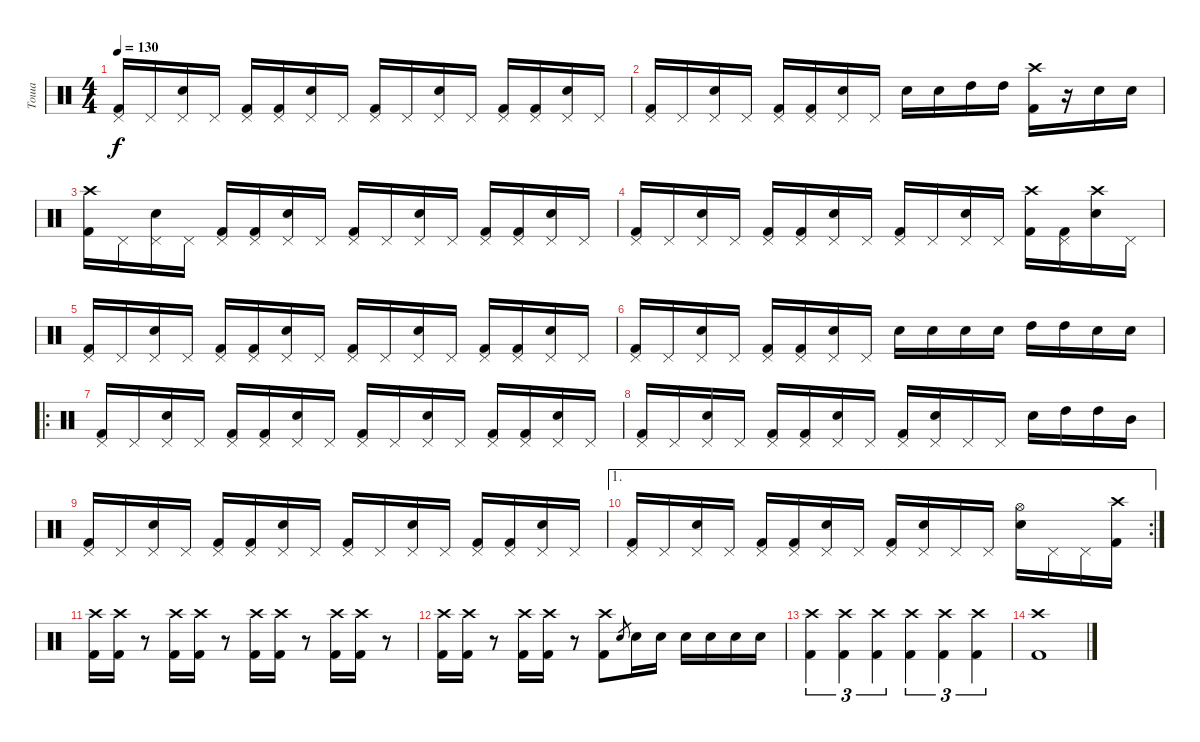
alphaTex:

\track ("Тоша" "Тоша") {solo instrument percussion}
\staff {score}
\articulation defaults
\ts (4 4)
\tempo 130
\clef neutral
\ks c
("Kick (hit) 2" "Pedal Hi-Hat (hit)").16{dy f} "Pedal Hi-Hat (hit)".16 ("Electric Snare (hit)" "Pedal Hi-Hat (hit)").16 "Pedal Hi-Hat (hit)".16 ("Kick (hit) 2" "Pedal Hi-Hat (hit)").16 ("Kick (hit) 2" "Pedal Hi-Hat (hit)").16 ("Electric Snare (hit)" "Pedal Hi-Hat (hit)").16 "Pedal Hi-Hat (hit)".16 ("Kick (hit) 2" "Pedal Hi-Hat (hit)").16 "Pedal Hi-Hat (hit)".16 ("Electric Snare (hit)" "Pedal Hi-Hat (hit)").16 "Pedal Hi-Hat (hit)".16 ("Kick (hit) 2" "Pedal Hi-Hat (hit)").16 ("Kick (hit) 2" "Pedal Hi-Hat (hit)").16 ("Electric Snare (hit)" "Pedal Hi-Hat (hit)").16 "Pedal Hi-Hat (hit)".16 |
("Kick (hit) 2" "Pedal Hi-Hat (hit)").16 "Pedal Hi-Hat (hit)".16 ("Electric Snare (hit)" "Pedal Hi-Hat (hit)").16 "Pedal Hi-Hat (hit)".16 ("Kick (hit) 2" "Pedal Hi-Hat (hit)").16 ("Kick (hit) 2" "Pedal Hi-Hat (hit)").16 ("Electric Snare (hit)" "Pedal Hi-Hat (hit)").16 "Pedal Hi-Hat (hit)".16 "Electric Snare (hit)".16 "Electric Snare (hit)".16 "High Tom (hit)".16 "High Tom (hit)".16 ("Crash high (hit)" "Kick (hit) 2").16 r.16 "Electric Snare (hit)".16 "Electric Snare (hit)".16 |
("Kick (hit) 2" "Crash high (hit)").16 "Pedal Hi-Hat (hit)".16 ("Electric Snare (hit)" "Pedal Hi-Hat (hit)").16 "Pedal Hi-Hat (hit)".16 ("Kick (hit) 2" "Pedal Hi-Hat (hit)").16 ("Kick (hit) 2" "Pedal Hi-Hat (hit)").16 ("Electric Snare (hit)" "Pedal Hi-Hat (hit)").16 "Pedal Hi-Hat (hit)".16 ("Kick (hit) 2" "Pedal Hi-Hat (hit)").16 "Pedal Hi-Hat (hit)".16 ("Electric Snare (hit)" "Pedal Hi-Hat (hit)").16 "Pedal Hi-Hat (hit)".16 ("Kick (hit) 2" "Pedal Hi-Hat (hit)").16 ("Kick (hit) 2" "Pedal Hi-Hat (hit)").16 ("Electric Snare (hit)" "Pedal Hi-Hat (hit)").16 "Pedal Hi-Hat (hit)".16 |
("Kick (hit) 2" "Pedal Hi-Hat (hit)").16 "Pedal Hi-Hat (hit)".16 ("Electric Snare (hit)" "Pedal Hi-Hat (hit)").16 "Pedal Hi-Hat (hit)".16 ("Kick (hit) 2" "Pedal Hi-Hat (hit)").16 ("Kick (hit) 2" "Pedal Hi-Hat (hit)").16 ("Electric Snare (hit)" "Pedal Hi-Hat (hit)").16 "Pedal Hi-Hat (hit)".16 ("Kick (hit) 2" "Pedal Hi-Hat (hit)").16 "Pedal Hi-Hat (hit)".16 ("Electric Snare (hit)" "Pedal Hi-Hat (hit)").16 "Pedal Hi-Hat (hit)".16 ("Kick (hit) 2" "Crash high (hit)").16 ("Kick (hit) 2" "Pedal Hi-Hat (hit)").16 ("Electric Snare (hit)" "Crash high (hit)").16 "Pedal Hi-Hat (hit)".16 |
("Kick (hit) 2" "Pedal Hi-Hat (hit)").16 "Pedal Hi-Hat (hit)".16 ("Electric Snare (hit)" "Pedal Hi-Hat (hit)").16 "Pedal Hi-Hat (hit)".16 ("Kick (hit) 2" "Pedal Hi-Hat (hit)").16 ("Kick (hit) 2" "Pedal Hi-Hat (hit)").16 ("Electric Snare (hit)" "Pedal Hi-Hat (hit)").16 "Pedal Hi-Hat (hit)".16 ("Kick (hit) 2" "Pedal Hi-Hat (hit)").16 "Pedal Hi-Hat (hit)".16 ("Electric Snare (hit)" "Pedal Hi-Hat (hit)").16 "Pedal Hi-Hat (hit)".16 ("Kick (hit) 2" "Pedal Hi-Hat (hit)").16 ("Kick (hit) 2" "Pedal Hi-Hat (hit)").16 ("Electric Snare (hit)" "Pedal Hi-Hat (hit)").16 "Pedal Hi-Hat (hit)".16 |
("Kick (hit) 2" "Pedal Hi-Hat (hit)").16 "Pedal Hi-Hat (hit)".16 ("Electric Snare (hit)" "Pedal Hi-Hat (hit)").16 "Pedal Hi-Hat (hit)".16 ("Kick (hit) 2" "Pedal Hi-Hat (hit)").16 ("Kick (hit) 2" "Pedal Hi-Hat (hit)").16 ("Electric Snare (hit)" "Pedal Hi-Hat (hit)").16 "Pedal Hi-Hat (hit)".16 "Electric Snare (hit)".16 "Electric Snare (hit)".16 "Electric Snare (hit)".16 "Electric Snare (hit)".16 "High Tom (hit)".16 "High Tom (hit)".16 "Electric Snare (hit)".16 "Electric Snare (hit)".16 |
\ro
("Kick (hit) 2" "Pedal Hi-Hat (hit)").16 "Pedal Hi-Hat (hit)".16 ("Electric Snare (hit)" "Pedal Hi-Hat (hit)").16 "Pedal Hi-Hat (hit)".16 ("Kick (hit) 2" "Pedal Hi-Hat (hit)").16 ("Kick (hit) 2" "Pedal Hi-Hat (hit)").16 ("Electric Snare (hit)" "Pedal Hi-Hat (hit)").16 "Pedal Hi-Hat (hit)".16 ("Kick (hit) 2" "Pedal Hi-Hat (hit)").16 "Pedal Hi-Hat (hit)".16 ("Electric Snare (hit)" "Pedal Hi-Hat (hit)").16 "Pedal Hi-Hat (hit)".16 ("Kick (hit) 2" "Pedal Hi-Hat (hit)").16 ("Kick (hit) 2" "Pedal Hi-Hat (hit)").16 ("Electric Snare (hit)" "Pedal Hi-Hat (hit)").16 "Pedal Hi-Hat (hit)".16 |
("Kick (hit) 2" "Pedal Hi-Hat (hit)").16 "Pedal Hi-Hat (hit)".16 ("Electric Snare (hit)" "Pedal Hi-Hat (hit)").16 "Pedal Hi-Hat (hit)".16 ("Kick (hit) 2" "Pedal Hi-Hat (hit)").16 ("Kick (hit) 2" "Pedal Hi-Hat (hit)").16 ("Electric Snare (hit)" "Pedal Hi-Hat (hit)").16 "Pedal Hi-Hat (hit)".16 ("Kick (hit) 2" "Pedal Hi-Hat (hit)").16 ("Electric Snare (hit)" "Pedal Hi-Hat (hit)").16 "Pedal Hi-Hat (hit)".16 "Pedal Hi-Hat (hit)".16 "Electric Snare (hit)".16 "High Tom (hit)".16 "High Tom (hit)".16 "Mid Tom (hit)".16 |
("Kick (hit) 2" "Pedal Hi-Hat (hit)").16 "Pedal Hi-Hat (hit)".16 ("Electric Snare (hit)" "Pedal Hi-Hat (hit)").16 "Pedal Hi-Hat (hit)".16 ("Kick (hit) 2" "Pedal Hi-Hat (hit)").16 ("Kick (hit) 2" "Pedal Hi-Hat (hit)").16 ("Electric Snare (hit)" "Pedal Hi-Hat (hit)").16 "Pedal Hi-Hat (hit)".16 ("Kick (hit) 2" "Pedal Hi-Hat (hit)").16 "Pedal Hi-Hat (hit)".16 ("Electric Snare (hit)" "Pedal Hi-Hat (hit)").16 "Pedal Hi-Hat (hit)".16 ("Kick (hit) 2" "Pedal Hi-Hat (hit)").16 ("Kick (hit) 2" "Pedal Hi-Hat (hit)").16 ("Electric Snare (hit)" "Pedal Hi-Hat (hit)").16 "Pedal Hi-Hat (hit)".16 |
\ae 1
\rc 2
("Kick (hit) 2" "Pedal Hi-Hat (hit)").16 "Pedal Hi-Hat (hit)".16 ("Electric Snare (hit)" "Pedal Hi-Hat (hit)").16 "Pedal Hi-Hat (hit)".16 ("Kick (hit) 2" "Pedal Hi-Hat (hit)").16 ("Kick (hit) 2" "Pedal Hi-Hat (hit)").16 ("Electric Snare (hit)" "Pedal Hi-Hat (hit)").16 "Pedal Hi-Hat (hit)".16 ("Kick (hit) 2" "Pedal Hi-Hat (hit)").16 ("Electric Snare (hit)" "Pedal Hi-Hat (hit)").16 "Pedal Hi-Hat (hit)".16 "Pedal Hi-Hat (hit)".16 ("Electric Snare (hit)" "Hi-Hat (open)").16 "Pedal Hi-Hat (hit)".16 "Pedal Hi-Hat (hit)".16 ("Kick (hit) 2" "Crash high (hit)").16 |
("Kick (hit) 2" "Crash high (hit)").16 ("Kick (hit) 2" "Crash high (hit)").16 r.8 ("Kick (hit) 2" "Crash high (hit)").16 ("Kick (hit) 2" "Crash high (hit)").16 r.8 ("Kick (hit) 2" "Crash high (hit)").16 ("Kick (hit) 2" "Crash high (hit)").16 r.8 ("Kick (hit) 2" "Crash high (hit)").16 ("Kick (hit) 2" "Crash high (hit)").16 r.8 |
("Kick (hit) 2" "Crash high (hit)").16 ("Kick (hit) 2" "Crash high (hit)").16 r.8 ("Kick (hit) 2" "Crash high (hit)").16 ("Kick (hit) 2" "Crash high (hit)").16 r.8 ("Crash high (hit)" "Kick (hit) 2").8 "Electric Snare (hit)".8{gr} "Electric Snare (hit)".16 "Electric Snare (hit)".16 "Electric Snare (hit)".16 "Electric Snare (hit)".16 "Electric Snare (hit)".16 "Electric Snare (hit)".16 |
("Crash high (hit)" "Kick (hit) 2").4{tu (3 2)} ("Crash high (hit)" "Kick (hit) 2").4{tu (3 2)} ("Crash high (hit)" "Kick (hit) 2").4{tu (3 2)} ("Crash high (hit)" "Kick (hit) 2").4{tu (3 2)} ("Crash high (hit)" "Kick (hit) 2").4{tu (3 2)} ("Crash high (hit)" "Kick (hit) 2").4{tu (3 2)} |
("Crash high (hit)" "Kick (hit) 2").1
